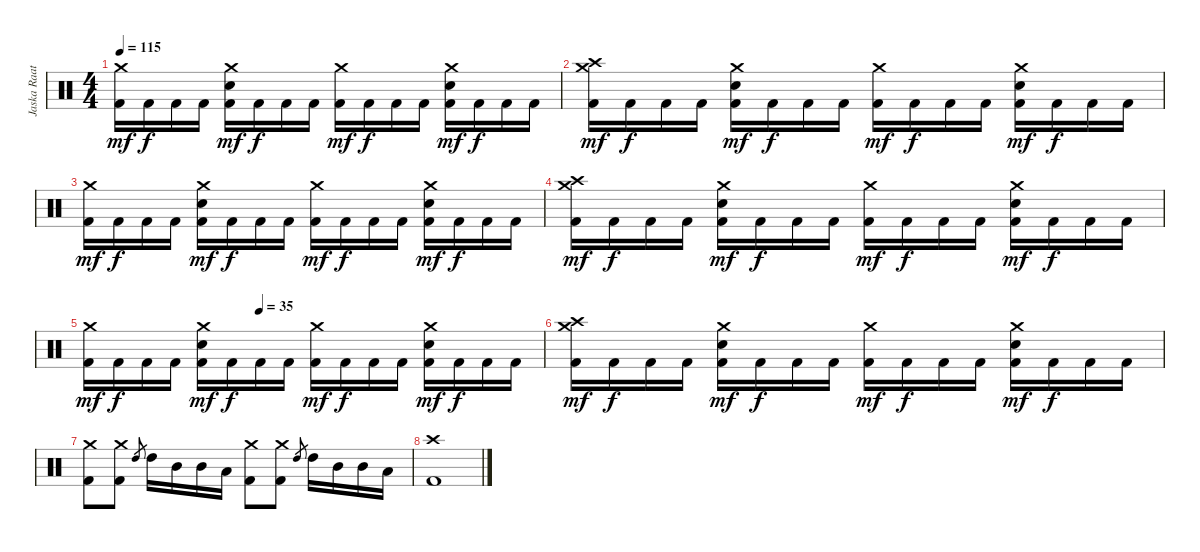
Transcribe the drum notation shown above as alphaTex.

\track ("Jaska Raatikainen" "Jaska Raat") {instrument percussion}
\staff {score}
\articulation defaults
\ts (4 4)
\tempo 115
\clef neutral
\ks c
("Crash medium (hit)" "Kick (hit) 2").16{dy mf} "Kick (hit) 2".16{dy f} "Kick (hit) 2".16 "Kick (hit) 2".16 ("Crash medium (hit)" "Electric Snare (hit)" "Kick (hit) 2").16{dy mf} "Kick (hit) 2".16{dy f} "Kick (hit) 2".16 "Kick (hit) 2".16 ("Crash medium (hit)" "Kick (hit) 2").16{dy mf} "Kick (hit) 2".16{dy f} "Kick (hit) 2".16 "Kick (hit) 2".16 ("Crash medium (hit)" "Electric Snare (hit)" "Kick (hit) 2").16{dy mf} "Kick (hit) 2".16{dy f} "Kick (hit) 2".16 "Kick (hit) 2".16 |
("Crash medium (hit)" "Crash high (hit)" "Kick (hit) 2").16{dy mf} "Kick (hit) 2".16{dy f} "Kick (hit) 2".16 "Kick (hit) 2".16 ("Crash medium (hit)" "Electric Snare (hit)" "Kick (hit) 2").16{dy mf} "Kick (hit) 2".16{dy f} "Kick (hit) 2".16 "Kick (hit) 2".16 ("Crash medium (hit)" "Kick (hit) 2").16{dy mf} "Kick (hit) 2".16{dy f} "Kick (hit) 2".16 "Kick (hit) 2".16 ("Crash medium (hit)" "Electric Snare (hit)" "Kick (hit) 2").16{dy mf} "Kick (hit) 2".16{dy f} "Kick (hit) 2".16 "Kick (hit) 2".16 |
("Crash medium (hit)" "Kick (hit) 2").16{dy mf} "Kick (hit) 2".16{dy f} "Kick (hit) 2".16 "Kick (hit) 2".16 ("Crash medium (hit)" "Electric Snare (hit)" "Kick (hit) 2").16{dy mf} "Kick (hit) 2".16{dy f} "Kick (hit) 2".16 "Kick (hit) 2".16 ("Crash medium (hit)" "Kick (hit) 2").16{dy mf} "Kick (hit) 2".16{dy f} "Kick (hit) 2".16 "Kick (hit) 2".16 ("Crash medium (hit)" "Electric Snare (hit)" "Kick (hit) 2").16{dy mf} "Kick (hit) 2".16{dy f} "Kick (hit) 2".16 "Kick (hit) 2".16 |
("Crash medium (hit)" "Crash high (hit)" "Kick (hit) 2").16{dy mf} "Kick (hit) 2".16{dy f} "Kick (hit) 2".16 "Kick (hit) 2".16 ("Crash medium (hit)" "Electric Snare (hit)" "Kick (hit) 2").16{dy mf} "Kick (hit) 2".16{dy f} "Kick (hit) 2".16 "Kick (hit) 2".16 ("Crash medium (hit)" "Kick (hit) 2").16{dy mf} "Kick (hit) 2".16{dy f} "Kick (hit) 2".16 "Kick (hit) 2".16 ("Crash medium (hit)" "Electric Snare (hit)" "Kick (hit) 2").16{dy mf} "Kick (hit) 2".16{dy f} "Kick (hit) 2".16 "Kick (hit) 2".16 |
\tempo (35 0.375)
("Crash medium (hit)" "Kick (hit) 2").16{dy mf} "Kick (hit) 2".16{dy f} "Kick (hit) 2".16 "Kick (hit) 2".16 ("Crash medium (hit)" "Electric Snare (hit)" "Kick (hit) 2").16{dy mf} "Kick (hit) 2".16{dy f} "Kick (hit) 2".16 "Kick (hit) 2".16 ("Crash medium (hit)" "Kick (hit) 2").16{dy mf} "Kick (hit) 2".16{dy f} "Kick (hit) 2".16 "Kick (hit) 2".16 ("Crash medium (hit)" "Electric Snare (hit)" "Kick (hit) 2").16{dy mf} "Kick (hit) 2".16{dy f} "Kick (hit) 2".16 "Kick (hit) 2".16 |
("Crash medium (hit)" "Crash high (hit)" "Kick (hit) 2").16{dy mf} "Kick (hit) 2".16{dy f} "Kick (hit) 2".16 "Kick (hit) 2".16 ("Crash medium (hit)" "Electric Snare (hit)" "Kick (hit) 2").16{dy mf} "Kick (hit) 2".16{dy f} "Kick (hit) 2".16 "Kick (hit) 2".16 ("Crash medium (hit)" "Kick (hit) 2").16{dy mf} "Kick (hit) 2".16{dy f} "Kick (hit) 2".16 "Kick (hit) 2".16 ("Crash medium (hit)" "Electric Snare (hit)" "Kick (hit) 2").16{dy mf} "Kick (hit) 2".16{dy f} "Kick (hit) 2".16 "Kick (hit) 2".16 |
("Crash medium (hit)" "Kick (hit) 2").8 ("Crash medium (hit)" "Kick (hit) 2").8 "High Tom (hit)".8{gr} "High Tom (hit)".16 "Mid Tom (hit)".16 "Mid Tom (hit)".16 "Low Tom (hit)".16 ("Crash medium (hit)" "Kick (hit) 2").8 ("Crash medium (hit)" "Kick (hit) 2").8 "High Tom (hit)".8{gr} "High Tom (hit)".16 "Mid Tom (hit)".16 "Mid Tom (hit)".16 "Low Tom (hit)".16 |
("Crash high (hit)" "Kick (hit) 2").1
